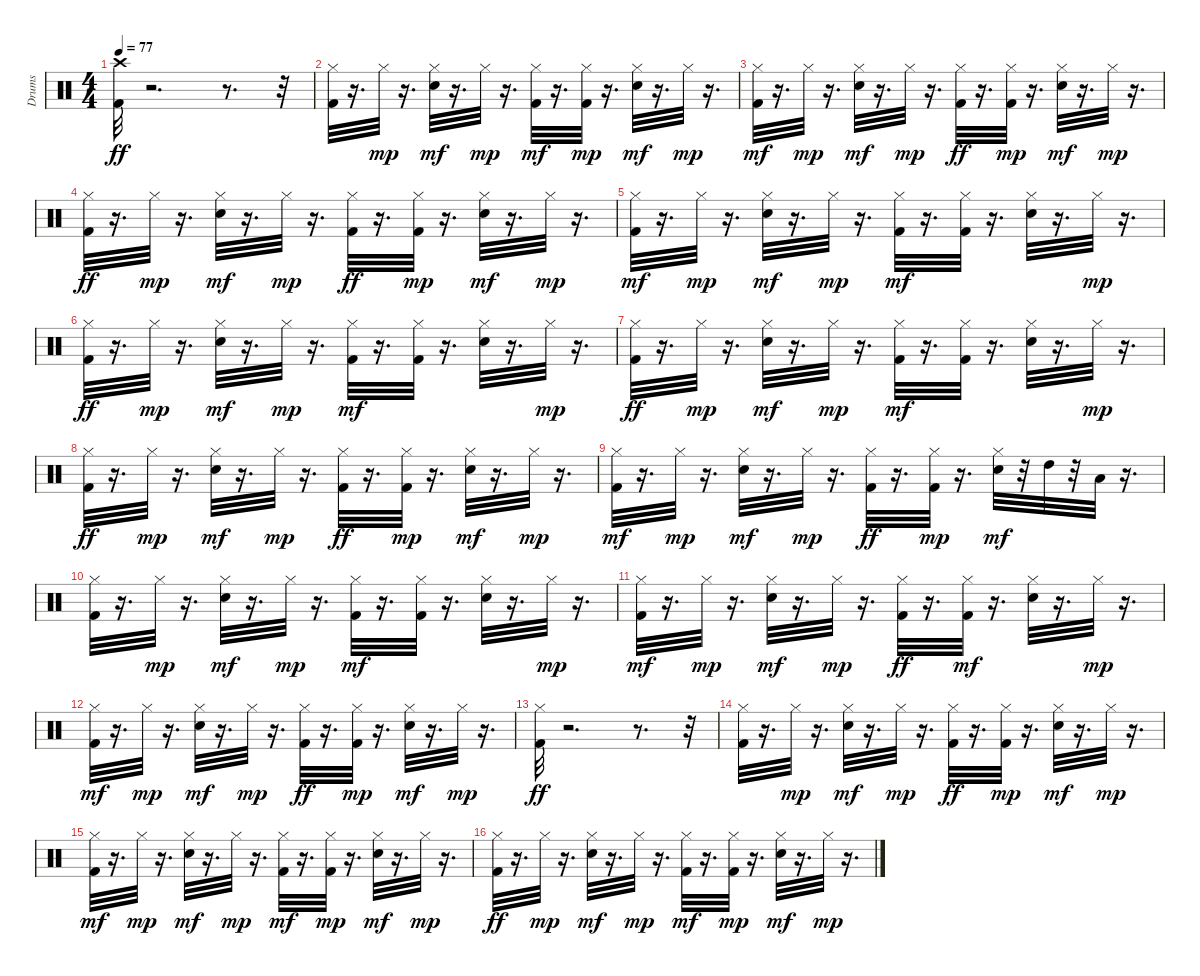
\track ("Drums" "Drums") {instrument percussion}
\staff {score}
\articulation defaults
\ts (4 4)
\tempo 77
\clef neutral
\ks c
("Crash high (hit)" "Kick (hit) 2").32{dy ff} r.2{d} r.8{d} r.32 |
("Hi-Hat (closed)" "Kick (hit) 2").32 r.16{d} "Hi-Hat (closed)".32{dy mp} r.16{d} ("Hi-Hat (closed)" "Electric Snare (hit)").32{dy mf} r.16{d} "Hi-Hat (closed)".32{dy mp} r.16{d} ("Kick (hit) 2" "Hi-Hat (closed)").32{dy mf} r.16{d} ("Kick (hit) 2" "Hi-Hat (closed)").32{dy mp} r.16{d} ("Hi-Hat (closed)" "Electric Snare (hit)").32{dy mf} r.16{d} "Hi-Hat (closed)".32{dy mp} r.16{d} |
("Kick (hit) 2" "Hi-Hat (closed)").32{dy mf} r.16{d} "Hi-Hat (closed)".32{dy mp} r.16{d} ("Electric Snare (hit)" "Hi-Hat (closed)").32{dy mf} r.16{d} "Hi-Hat (closed)".32{dy mp} r.16{d} ("Hi-Hat (closed)" "Kick (hit) 2").32{dy ff} r.16{d} ("Kick (hit) 2" "Hi-Hat (closed)").32{dy mp} r.16{d} ("Hi-Hat (closed)" "Electric Snare (hit)").32{dy mf} r.16{d} "Hi-Hat (closed)".32{dy mp} r.16{d} |
("Hi-Hat (closed)" "Kick (hit) 2").32{dy ff} r.16{d} "Hi-Hat (closed)".32{dy mp} r.16{d} ("Hi-Hat (closed)" "Electric Snare (hit)").32{dy mf} r.16{d} "Hi-Hat (closed)".32{dy mp} r.16{d} ("Hi-Hat (closed)" "Kick (hit) 2").32{dy ff} r.16{d} ("Kick (hit) 2" "Hi-Hat (closed)").32{dy mp} r.16{d} ("Hi-Hat (closed)" "Electric Snare (hit)").32{dy mf} r.16{d} "Hi-Hat (closed)".32{dy mp} r.16{d} |
("Kick (hit) 2" "Hi-Hat (closed)").32{dy mf} r.16{d} "Hi-Hat (closed)".32{dy mp} r.16{d} ("Electric Snare (hit)" "Hi-Hat (closed)").32{dy mf} r.16{d} "Hi-Hat (closed)".32{dy mp} r.16{d} ("Kick (hit) 2" "Hi-Hat (closed)").32{dy mf} r.16{d} ("Hi-Hat (closed)" "Kick (hit) 2").32 r.16{d} ("Hi-Hat (closed)" "Electric Snare (hit)").32 r.16{d} "Hi-Hat (closed)".32{dy mp} r.16{d} |
("Hi-Hat (closed)" "Kick (hit) 2").32{dy ff} r.16{d} "Hi-Hat (closed)".32{dy mp} r.16{d} ("Hi-Hat (closed)" "Electric Snare (hit)").32{dy mf} r.16{d} "Hi-Hat (closed)".32{dy mp} r.16{d} ("Kick (hit) 2" "Hi-Hat (closed)").32{dy mf} r.16{d} ("Hi-Hat (closed)" "Kick (hit) 2").32 r.16{d} ("Electric Snare (hit)" "Hi-Hat (closed)").32 r.16{d} "Hi-Hat (closed)".32{dy mp} r.16{d} |
("Hi-Hat (closed)" "Kick (hit) 2").32{dy ff} r.16{d} "Hi-Hat (closed)".32{dy mp} r.16{d} ("Electric Snare (hit)" "Hi-Hat (closed)").32{dy mf} r.16{d} "Hi-Hat (closed)".32{dy mp} r.16{d} ("Kick (hit) 2" "Hi-Hat (closed)").32{dy mf} r.16{d} ("Hi-Hat (closed)" "Kick (hit) 2").32 r.16{d} ("Hi-Hat (closed)" "Electric Snare (hit)").32 r.16{d} "Hi-Hat (closed)".32{dy mp} r.16{d} |
("Hi-Hat (closed)" "Kick (hit) 2").32{dy ff} r.16{d} "Hi-Hat (closed)".32{dy mp} r.16{d} ("Electric Snare (hit)" "Hi-Hat (closed)").32{dy mf} r.16{d} "Hi-Hat (closed)".32{dy mp} r.16{d} ("Hi-Hat (closed)" "Kick (hit) 2").32{dy ff} r.16{d} ("Kick (hit) 2" "Hi-Hat (closed)").32{dy mp} r.16{d} ("Electric Snare (hit)" "Hi-Hat (closed)").32{dy mf} r.16{d} "Hi-Hat (closed)".32{dy mp} r.16{d} |
("Kick (hit) 2" "Hi-Hat (closed)").32{dy mf} r.16{d} "Hi-Hat (closed)".32{dy mp} r.16{d} ("Electric Snare (hit)" "Hi-Hat (closed)").32{dy mf} r.16{d} "Hi-Hat (closed)".32{dy mp} r.16{d} ("Hi-Hat (closed)" "Kick (hit) 2").32{dy ff} r.16{d} ("Kick (hit) 2" "Hi-Hat (closed)").32{dy mp} r.16{d} ("Electric Snare (hit)" "Hi-Hat (closed)").32{dy mf} r.32 "High Tom (hit)".32 r.32 "Low Floor Tom (hit)".32 r.16{d} |
("Kick (hit) 2" "Hi-Hat (closed)").32 r.16{d} "Hi-Hat (closed)".32{dy mp} r.16{d} ("Electric Snare (hit)" "Hi-Hat (closed)").32{dy mf} r.16{d} "Hi-Hat (closed)".32{dy mp} r.16{d} ("Kick (hit) 2" "Hi-Hat (closed)").32{dy mf} r.16{d} ("Hi-Hat (closed)" "Kick (hit) 2").32 r.16{d} ("Hi-Hat (closed)" "Electric Snare (hit)").32 r.16{d} "Hi-Hat (closed)".32{dy mp} r.16{d} |
("Kick (hit) 2" "Hi-Hat (closed)").32{dy mf} r.16{d} "Hi-Hat (closed)".32{dy mp} r.16{d} ("Electric Snare (hit)" "Hi-Hat (closed)").32{dy mf} r.16{d} "Hi-Hat (closed)".32{dy mp} r.16{d} ("Hi-Hat (closed)" "Kick (hit) 2").32{dy ff} r.16{d} ("Hi-Hat (closed)" "Kick (hit) 2").32{dy mf} r.16{d} ("Hi-Hat (closed)" "Electric Snare (hit)").32 r.16{d} "Hi-Hat (closed)".32{dy mp} r.16{d} |
("Kick (hit) 2" "Hi-Hat (closed)").32{dy mf} r.16{d} "Hi-Hat (closed)".32{dy mp} r.16{d} ("Electric Snare (hit)" "Hi-Hat (closed)").32{dy mf} r.16{d} "Hi-Hat (closed)".32{dy mp} r.16{d} ("Hi-Hat (closed)" "Kick (hit) 2").32{dy ff} r.16{d} ("Kick (hit) 2" "Hi-Hat (closed)").32{dy mp} r.16{d} ("Electric Snare (hit)" "Hi-Hat (closed)").32{dy mf} r.16{d} "Hi-Hat (closed)".32{dy mp} r.16{d} |
("Hi-Hat (closed)" "Kick (hit) 2").32{dy ff} r.2{d} r.8{d} r.32 |
("Hi-Hat (closed)" "Kick (hit) 2").32 r.16{d} "Hi-Hat (closed)".32{dy mp} r.16{d} ("Hi-Hat (closed)" "Electric Snare (hit)").32{dy mf} r.16{d} "Hi-Hat (closed)".32{dy mp} r.16{d} ("Hi-Hat (closed)" "Kick (hit) 2").32{dy ff} r.16{d} ("Kick (hit) 2" "Hi-Hat (closed)").32{dy mp} r.16{d} ("Electric Snare (hit)" "Hi-Hat (closed)").32{dy mf} r.16{d} "Hi-Hat (closed)".32{dy mp} r.16{d} |
("Kick (hit) 2" "Hi-Hat (closed)").32{dy mf} r.16{d} "Hi-Hat (closed)".32{dy mp} r.16{d} ("Hi-Hat (closed)" "Electric Snare (hit)").32{dy mf} r.16{d} "Hi-Hat (closed)".32{dy mp} r.16{d} ("Kick (hit) 2" "Hi-Hat (closed)").32{dy mf} r.16{d} ("Kick (hit) 2" "Hi-Hat (closed)").32{dy mp} r.16{d} ("Electric Snare (hit)" "Hi-Hat (closed)").32{dy mf} r.16{d} "Hi-Hat (closed)".32{dy mp} r.16{d} |
("Hi-Hat (closed)" "Kick (hit) 2").32{dy ff} r.16{d} "Hi-Hat (closed)".32{dy mp} r.16{d} ("Hi-Hat (closed)" "Electric Snare (hit)").32{dy mf} r.16{d} "Hi-Hat (closed)".32{dy mp} r.16{d} ("Kick (hit) 2" "Hi-Hat (closed)").32{dy mf} r.16{d} ("Kick (hit) 2" "Hi-Hat (closed)").32{dy mp} r.16{d} ("Electric Snare (hit)" "Hi-Hat (closed)").32{dy mf} r.16{d} "Hi-Hat (closed)".32{dy mp} r.16{d}
